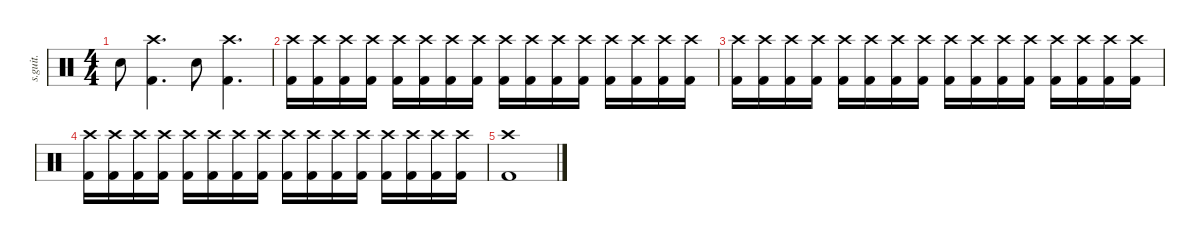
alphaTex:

\defaultSystemsLayout 4
\hideDynamics
\bracketExtendMode nobrackets
\track ("" "s.guit.") {instrument percussion}
\staff {score}
\articulation defaults
\ts (4 4)
\tempo (110 hide)
\clef neutral
\ks c "Snare (hit) 2".8{dy mf}
("Crash high (hit)" "Kick (hit) 2").4{d} "Snare (hit) 2".8 ("Crash high (hit)" "Kick (hit) 2").4{d} |
("Crash high (hit)" "Kick (hit) 2").16 ("Crash high (hit)" "Kick (hit) 2").16 ("Crash high (hit)" "Kick (hit) 2").16 ("Crash high (hit)" "Kick (hit) 2").16 ("Crash high (hit)" "Kick (hit) 2").16 ("Crash high (hit)" "Kick (hit) 2").16 ("Crash high (hit)" "Kick (hit) 2").16 ("Crash high (hit)" "Kick (hit) 2").16 ("Crash high (hit)" "Kick (hit) 2").16 ("Crash high (hit)" "Kick (hit) 2").16 ("Crash high (hit)" "Kick (hit) 2").16 ("Crash high (hit)" "Kick (hit) 2").16 ("Crash high (hit)" "Kick (hit) 2").16 ("Crash high (hit)" "Kick (hit) 2").16 ("Crash high (hit)" "Kick (hit) 2").16 ("Crash high (hit)" "Kick (hit) 2").16 |
("Crash high (hit)" "Kick (hit) 2").16 ("Crash high (hit)" "Kick (hit) 2").16 ("Crash high (hit)" "Kick (hit) 2").16 ("Crash high (hit)" "Kick (hit) 2").16 ("Crash high (hit)" "Kick (hit) 2").16 ("Crash high (hit)" "Kick (hit) 2").16 ("Crash high (hit)" "Kick (hit) 2").16 ("Crash high (hit)" "Kick (hit) 2").16 ("Crash high (hit)" "Kick (hit) 2").16 ("Crash high (hit)" "Kick (hit) 2").16 ("Crash high (hit)" "Kick (hit) 2").16 ("Crash high (hit)" "Kick (hit) 2").16 ("Crash high (hit)" "Kick (hit) 2").16 ("Crash high (hit)" "Kick (hit) 2").16 ("Crash high (hit)" "Kick (hit) 2").16 ("Crash high (hit)" "Kick (hit) 2").16 |
("Crash high (hit)" "Kick (hit) 2").16 ("Crash high (hit)" "Kick (hit) 2").16 ("Crash high (hit)" "Kick (hit) 2").16 ("Crash high (hit)" "Kick (hit) 2").16 ("Crash high (hit)" "Kick (hit) 2").16 ("Crash high (hit)" "Kick (hit) 2").16 ("Crash high (hit)" "Kick (hit) 2").16 ("Crash high (hit)" "Kick (hit) 2").16 ("Crash high (hit)" "Kick (hit) 2").16 ("Crash high (hit)" "Kick (hit) 2").16 ("Crash high (hit)" "Kick (hit) 2").16 ("Crash high (hit)" "Kick (hit) 2").16 ("Crash high (hit)" "Kick (hit) 2").16 ("Crash high (hit)" "Kick (hit) 2").16 ("Crash high (hit)" "Kick (hit) 2").16 ("Crash high (hit)" "Kick (hit) 2").16 |
("Crash high (hit)" "Kick (hit) 2").1
